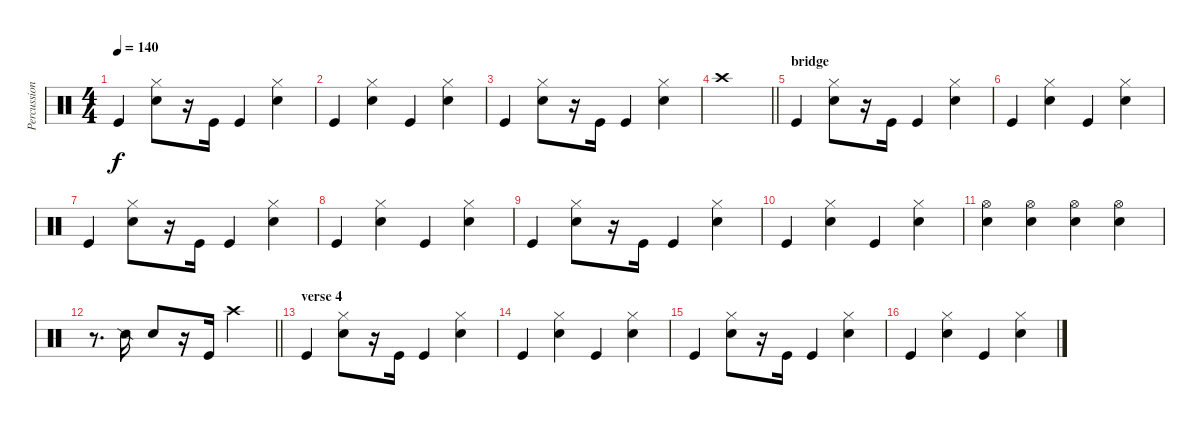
\track ("Percussions" "Percussion") {instrument percussion}
\staff {score}
\articulation defaults
\ts (4 4)
\tempo 140
\clef neutral
\ks c "Kick (hit)".4{dy f}
("Hi-Hat (closed)" "Electric Snare (hit)").8 r.16 "Kick (hit)".16 "Kick (hit)".4 ("Hi-Hat (closed)" "Electric Snare (hit)").4 |
"Kick (hit)".4 ("Hi-Hat (closed)" "Electric Snare (hit)").4 "Kick (hit)".4 ("Hi-Hat (closed)" "Electric Snare (hit)").4 |
"Kick (hit)".4 ("Hi-Hat (closed)" "Electric Snare (hit)").8 r.16 "Kick (hit)".16 "Kick (hit)".4 ("Hi-Hat (closed)" "Electric Snare (hit)").4 |
\barLineRight lightlight "Crash high (hit)".1
|
\section ("" "bridge")
"Kick (hit)".4 ("Hi-Hat (closed)" "Electric Snare (hit)").8 r.16 "Kick (hit)".16 "Kick (hit)".4 ("Hi-Hat (closed)" "Electric Snare (hit)").4 |
"Kick (hit)".4 ("Hi-Hat (closed)" "Electric Snare (hit)").4 "Kick (hit)".4 ("Hi-Hat (closed)" "Electric Snare (hit)").4 |
"Kick (hit)".4 ("Hi-Hat (closed)" "Electric Snare (hit)").8 r.16 "Kick (hit)".16 "Kick (hit)".4 ("Hi-Hat (closed)" "Electric Snare (hit)").4 |
"Kick (hit)".4 ("Hi-Hat (closed)" "Electric Snare (hit)").4 "Kick (hit)".4 ("Hi-Hat (closed)" "Electric Snare (hit)").4 |
"Kick (hit)".4 ("Hi-Hat (closed)" "Electric Snare (hit)").8 r.16 "Kick (hit)".16 "Kick (hit)".4 ("Hi-Hat (closed)" "Electric Snare (hit)").4 |
"Kick (hit)".4 ("Hi-Hat (closed)" "Electric Snare (hit)").4 "Kick (hit)".4 ("Hi-Hat (closed)" "Electric Snare (hit)").4 |
("Electric Snare (hit)" "Hi-Hat (open)").4 ("Electric Snare (hit)" "Hi-Hat (open)").4 ("Electric Snare (hit)" "Hi-Hat (open)").4 ("Electric Snare (hit)" "Hi-Hat (open)").4 |
\barLineRight lightlight
r.8{d} "Snare (side stick) 2".16 "Snare (hit) 2".8 r.16 "Kick (hit)".16 "Crash high (hit)".2 |
\section ("" "verse 4")
"Kick (hit)".4 ("Hi-Hat (closed)" "Electric Snare (hit)").8 r.16 "Kick (hit)".16 "Kick (hit)".4 ("Hi-Hat (closed)" "Electric Snare (hit)").4 |
"Kick (hit)".4 ("Hi-Hat (closed)" "Electric Snare (hit)").4 "Kick (hit)".4 ("Hi-Hat (closed)" "Electric Snare (hit)").4 |
"Kick (hit)".4 ("Hi-Hat (closed)" "Electric Snare (hit)").8 r.16 "Kick (hit)".16 "Kick (hit)".4 ("Hi-Hat (closed)" "Electric Snare (hit)").4 |
"Kick (hit)".4 ("Hi-Hat (closed)" "Electric Snare (hit)").4 "Kick (hit)".4 ("Hi-Hat (closed)" "Electric Snare (hit)").4
